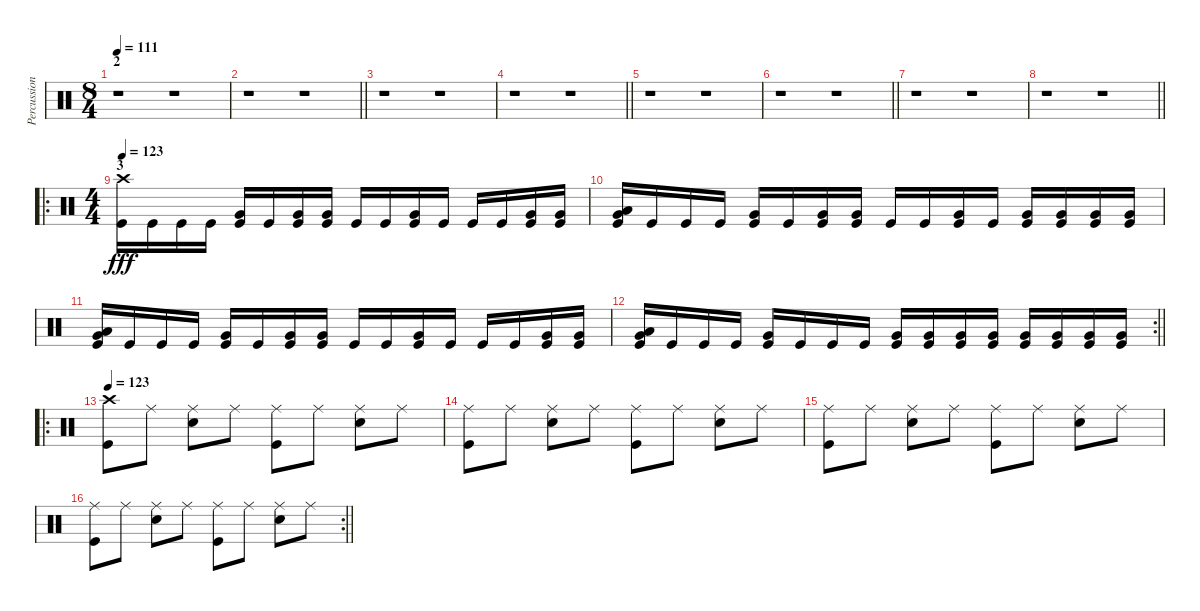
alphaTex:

\track ("Percussion" "Percussion") {instrument percussion}
\staff {score}
\articulation defaults
\ts (8 4)
\section ("" "2")
\tempo 111
\clef neutral
\ks c
r.1{dy fff} r.1 |
\barLineRight lightlight
r.1 r.1 |
r.1 r.1 |
\barLineRight lightlight
r.1 r.1 |
r.1 r.1 |
\barLineRight lightlight
r.1 r.1 |
r.1 r.1 |
\barLineRight lightlight
r.1 r.1 |
\ro
\ts (4 4)
\section ("" "3")
\tempo 123
("Crash high (hit)" "Kick (hit)").16 "Kick (hit)".16 "Kick (hit)".16 "Kick (hit)".16 ("Very Low Tom (hit)" "Kick (hit)").16 "Kick (hit)".16 ("Very Low Tom (hit)" "Kick (hit)").16 ("Very Low Tom (hit)" "Kick (hit)").16 "Kick (hit)".16 "Kick (hit)".16 ("Very Low Tom (hit)" "Kick (hit)").16 "Kick (hit)".16 "Kick (hit)".16 "Kick (hit)".16 ("Very Low Tom (hit)" "Kick (hit)").16 ("Very Low Tom (hit)" "Kick (hit)").16 |
("Very Low Tom (hit)" "Low Tom (hit)" "Kick (hit)").16{bu 240} "Kick (hit)".16 "Kick (hit)".16 "Kick (hit)".16 ("Very Low Tom (hit)" "Kick (hit)").16 "Kick (hit)".16 ("Very Low Tom (hit)" "Kick (hit)").16 ("Very Low Tom (hit)" "Kick (hit)").16 "Kick (hit)".16 "Kick (hit)".16 ("Very Low Tom (hit)" "Kick (hit)").16 "Kick (hit)".16 ("Very Low Tom (hit)" "Kick (hit)").16 ("Very Low Tom (hit)" "Kick (hit)").16 ("Very Low Tom (hit)" "Kick (hit)").16 ("Very Low Tom (hit)" "Kick (hit)").16 |
("Very Low Tom (hit)" "Low Tom (hit)" "Kick (hit)").16{bu 240} "Kick (hit)".16 "Kick (hit)".16 "Kick (hit)".16 ("Very Low Tom (hit)" "Kick (hit)").16 "Kick (hit)".16 ("Very Low Tom (hit)" "Kick (hit)").16 ("Very Low Tom (hit)" "Kick (hit)").16 "Kick (hit)".16 "Kick (hit)".16 ("Very Low Tom (hit)" "Kick (hit)").16 "Kick (hit)".16 "Kick (hit)".16 "Kick (hit)".16 ("Very Low Tom (hit)" "Kick (hit)").16 ("Very Low Tom (hit)" "Kick (hit)").16 |
\rc 2
\barLineRight lightlight
("Very Low Tom (hit)" "Low Tom (hit)" "Kick (hit)").16{bu 240} "Kick (hit)".16 "Kick (hit)".16 "Kick (hit)".16 ("Very Low Tom (hit)" "Kick (hit)").16 "Kick (hit)".16 "Kick (hit)".16 "Kick (hit)".16 ("Very Low Tom (hit)" "Kick (hit)").16 ("Very Low Tom (hit)" "Kick (hit)").16 ("Very Low Tom (hit)" "Kick (hit)").16 ("Very Low Tom (hit)" "Kick (hit)").16 ("Very Low Tom (hit)" "Kick (hit)").16 ("Very Low Tom (hit)" "Kick (hit)").16 ("Very Low Tom (hit)" "Kick (hit)").16 ("Very Low Tom (hit)" "Kick (hit)").16 |
\ro
\section ("" "")
\tempo 123
("Crash high (hit)" "Kick (hit)").8 "Ride (middle)".8 ("Ride (middle)" "Snare (hit) 2").8 "Ride (middle)".8 ("Ride (middle)" "Kick (hit)").8 "Ride (middle)".8 ("Ride (middle)" "Snare (hit) 2").8 "Ride (middle)".8 |
("Ride (middle)" "Kick (hit)").8 "Ride (middle)".8 ("Ride (middle)" "Snare (hit) 2").8 "Ride (middle)".8 ("Ride (middle)" "Kick (hit)").8 "Ride (middle)".8 ("Ride (middle)" "Snare (hit) 2").8 "Ride (middle)".8 |
("Ride (middle)" "Kick (hit)").8 "Ride (middle)".8 ("Ride (middle)" "Snare (hit) 2").8 "Ride (middle)".8 ("Ride (middle)" "Kick (hit)").8 "Ride (middle)".8 ("Ride (middle)" "Snare (hit) 2").8 "Ride (middle)".8 |
\rc 2
\barLineRight lightlight
("Ride (middle)" "Kick (hit)").8 "Ride (middle)".8 ("Ride (middle)" "Snare (hit) 2").8 "Ride (middle)".8 ("Ride (middle)" "Kick (hit)").8 "Ride (middle)".8 ("Ride (middle)" "Snare (hit) 2").8 "Ride (middle)".8
